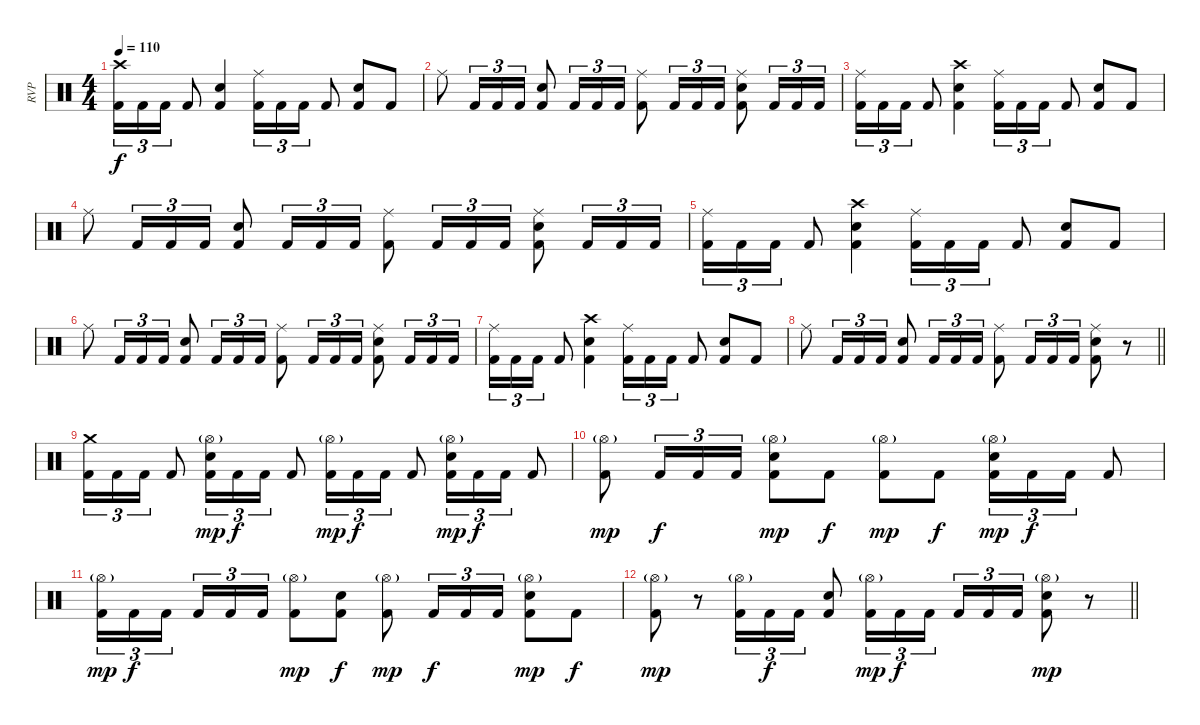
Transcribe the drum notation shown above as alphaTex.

\track ("RVP" "RVP") {instrument percussion}
\staff {score}
\articulation defaults
\ts (4 4)
\tempo 110
\clef neutral
\ks c
("Crash high (hit)" "Kick (hit) 2").16{tu (3 2) dy f} "Kick (hit) 2".16{tu (3 2)} "Kick (hit) 2".16{tu (3 2)} "Kick (hit) 2".8 ("Electric Snare (hit)" "Kick (hit) 2").4 ("Ride (middle)" "Kick (hit) 2").16{tu (3 2)} "Kick (hit) 2".16{tu (3 2)} "Kick (hit) 2".16{tu (3 2)} "Kick (hit) 2".8 ("Electric Snare (hit)" "Kick (hit) 2").8 "Kick (hit) 2".8 |
"Ride (middle)".8 "Kick (hit) 2".16{tu (3 2)} "Kick (hit) 2".16{tu (3 2)} "Kick (hit) 2".16{tu (3 2)} ("Electric Snare (hit)" "Kick (hit) 2").8 "Kick (hit) 2".16{tu (3 2)} "Kick (hit) 2".16{tu (3 2)} "Kick (hit) 2".16{tu (3 2)} ("Ride (middle)" "Kick (hit) 2").8 "Kick (hit) 2".16{tu (3 2)} "Kick (hit) 2".16{tu (3 2)} "Kick (hit) 2".16{tu (3 2)} ("Ride (middle)" "Electric Snare (hit)" "Kick (hit) 2").8 "Kick (hit) 2".16{tu (3 2)} "Kick (hit) 2".16{tu (3 2)} "Kick (hit) 2".16{tu (3 2)} |
("Ride (middle)" "Kick (hit) 2").16{tu (3 2)} "Kick (hit) 2".16{tu (3 2)} "Kick (hit) 2".16{tu (3 2)} "Kick (hit) 2".8 ("Crash high (hit)" "Electric Snare (hit)" "Kick (hit) 2").4 ("Ride (middle)" "Kick (hit) 2").16{tu (3 2)} "Kick (hit) 2".16{tu (3 2)} "Kick (hit) 2".16{tu (3 2)} "Kick (hit) 2".8 ("Electric Snare (hit)" "Kick (hit) 2").8 "Kick (hit) 2".8 |
"Ride (middle)".8 "Kick (hit) 2".16{tu (3 2)} "Kick (hit) 2".16{tu (3 2)} "Kick (hit) 2".16{tu (3 2)} ("Electric Snare (hit)" "Kick (hit) 2").8 "Kick (hit) 2".16{tu (3 2)} "Kick (hit) 2".16{tu (3 2)} "Kick (hit) 2".16{tu (3 2)} ("Ride (middle)" "Kick (hit) 2").8 "Kick (hit) 2".16{tu (3 2)} "Kick (hit) 2".16{tu (3 2)} "Kick (hit) 2".16{tu (3 2)} ("Ride (middle)" "Electric Snare (hit)" "Kick (hit) 2").8 "Kick (hit) 2".16{tu (3 2)} "Kick (hit) 2".16{tu (3 2)} "Kick (hit) 2".16{tu (3 2)} |
("Ride (middle)" "Kick (hit) 2").16{tu (3 2)} "Kick (hit) 2".16{tu (3 2)} "Kick (hit) 2".16{tu (3 2)} "Kick (hit) 2".8 ("Crash high (hit)" "Electric Snare (hit)" "Kick (hit) 2").4 ("Ride (middle)" "Kick (hit) 2").16{tu (3 2)} "Kick (hit) 2".16{tu (3 2)} "Kick (hit) 2".16{tu (3 2)} "Kick (hit) 2".8 ("Electric Snare (hit)" "Kick (hit) 2").8 "Kick (hit) 2".8 |
"Ride (middle)".8 "Kick (hit) 2".16{tu (3 2)} "Kick (hit) 2".16{tu (3 2)} "Kick (hit) 2".16{tu (3 2)} ("Electric Snare (hit)" "Kick (hit) 2").8 "Kick (hit) 2".16{tu (3 2)} "Kick (hit) 2".16{tu (3 2)} "Kick (hit) 2".16{tu (3 2)} ("Ride (middle)" "Kick (hit) 2").8 "Kick (hit) 2".16{tu (3 2)} "Kick (hit) 2".16{tu (3 2)} "Kick (hit) 2".16{tu (3 2)} ("Ride (middle)" "Electric Snare (hit)" "Kick (hit) 2").8 "Kick (hit) 2".16{tu (3 2)} "Kick (hit) 2".16{tu (3 2)} "Kick (hit) 2".16{tu (3 2)} |
("Ride (middle)" "Kick (hit) 2").16{tu (3 2)} "Kick (hit) 2".16{tu (3 2)} "Kick (hit) 2".16{tu (3 2)} "Kick (hit) 2".8 ("Crash high (hit)" "Electric Snare (hit)" "Kick (hit) 2").4 ("Ride (middle)" "Kick (hit) 2").16{tu (3 2)} "Kick (hit) 2".16{tu (3 2)} "Kick (hit) 2".16{tu (3 2)} "Kick (hit) 2".8 ("Electric Snare (hit)" "Kick (hit) 2").8 "Kick (hit) 2".8 |
\barLineRight lightlight "Ride (middle)".8 "Kick (hit) 2".16{tu (3 2)} "Kick (hit) 2".16{tu (3 2)} "Kick (hit) 2".16{tu (3 2)}
("Electric Snare (hit)" "Kick (hit) 2").8 "Kick (hit) 2".16{tu (3 2)} "Kick (hit) 2".16{tu (3 2)} "Kick (hit) 2".16{tu (3 2)} ("Ride (middle)" "Kick (hit) 2").8 "Kick (hit) 2".16{tu (3 2)} "Kick (hit) 2".16{tu (3 2)} "Kick (hit) 2".16{tu (3 2)} ("Ride (middle)" "Electric Snare (hit)" "Kick (hit) 2").8 r.8 |
("Crash medium (hit)" "Kick (hit) 2").16{tu (3 2)} "Kick (hit) 2".16{tu (3 2)} "Kick (hit) 2".16{tu (3 2)} "Kick (hit) 2".8 ("Hi-Hat (open)"{g} "Electric Snare (hit)" "Kick (hit) 2").16{tu (3 2) dy mp} "Kick (hit) 2".16{tu (3 2) dy f} "Kick (hit) 2".16{tu (3 2)} "Kick (hit) 2".8 ("Hi-Hat (open)"{g} "Kick (hit) 2").16{tu (3 2) dy mp} "Kick (hit) 2".16{tu (3 2) dy f} "Kick (hit) 2".16{tu (3 2)} "Kick (hit) 2".8 ("Hi-Hat (open)"{g} "Electric Snare (hit)" "Kick (hit) 2").16{tu (3 2) dy mp} "Kick (hit) 2".16{tu (3 2) dy f} "Kick (hit) 2".16{tu (3 2)} "Kick (hit) 2".8 |
("Hi-Hat (open)"{g} "Kick (hit) 2").8{dy mp} "Kick (hit) 2".16{tu (3 2) dy f} "Kick (hit) 2".16{tu (3 2)} "Kick (hit) 2".16{tu (3 2)} ("Hi-Hat (open)"{g} "Electric Snare (hit)" "Kick (hit) 2").8{dy mp} "Kick (hit) 2".8{dy f} ("Hi-Hat (open)"{g} "Kick (hit) 2").8{dy mp} "Kick (hit) 2".8{dy f} ("Hi-Hat (open)"{g} "Electric Snare (hit)" "Kick (hit) 2").16{tu (3 2) dy mp} "Kick (hit) 2".16{tu (3 2) dy f} "Kick (hit) 2".16{tu (3 2)} "Kick (hit) 2".8 |
("Hi-Hat (open)"{g} "Kick (hit) 2").16{tu (3 2) dy mp} "Kick (hit) 2".16{tu (3 2) dy f} "Kick (hit) 2".16{tu (3 2) beam splitsecondary} "Kick (hit) 2".16{tu (3 2)} "Kick (hit) 2".16{tu (3 2)} "Kick (hit) 2".16{tu (3 2)} ("Hi-Hat (open)"{g} "Kick (hit) 2").8{dy mp} ("Electric Snare (hit)" "Kick (hit) 2").8{dy f} ("Hi-Hat (open)"{g} "Kick (hit) 2").8{dy mp} "Kick (hit) 2".16{tu (3 2) dy f} "Kick (hit) 2".16{tu (3 2)} "Kick (hit) 2".16{tu (3 2)} ("Hi-Hat (open)"{g} "Electric Snare (hit)" "Kick (hit) 2").8{dy mp} "Kick (hit) 2".8{dy f} |
\barLineRight lightlight
("Hi-Hat (open)"{g} "Kick (hit) 2").8{dy mp} r.8 ("Hi-Hat (open)"{g} "Kick (hit) 2").16{tu (3 2)} "Kick (hit) 2".16{tu (3 2) dy f} "Kick (hit) 2".16{tu (3 2)} ("Electric Snare (hit)" "Kick (hit) 2").8 ("Hi-Hat (open)"{g} "Kick (hit) 2").16{tu (3 2) dy mp} "Kick (hit) 2".16{tu (3 2) dy f} "Kick (hit) 2".16{tu (3 2) beam splitsecondary} "Kick (hit) 2".16{tu (3 2)} "Kick (hit) 2".16{tu (3 2)} "Kick (hit) 2".16{tu (3 2)} ("Hi-Hat (open)"{g} "Electric Snare (hit)" "Kick (hit) 2").8{dy mp} r.8
